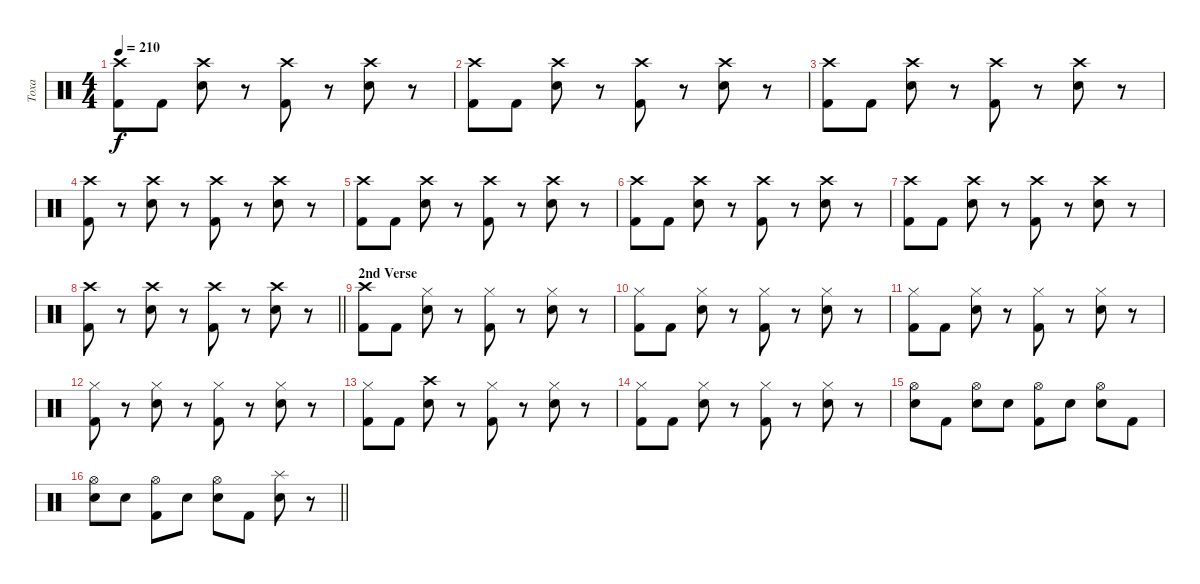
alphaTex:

\track ("Toxa" "Toxa") {instrument percussion}
\staff {score}
\articulation defaults
\ts (4 4)
\tempo 210
\clef neutral
\ks c
("Kick (hit) 2" "Crash high (hit)").8{dy f} "Kick (hit) 2".8 ("Snare (hit) 2" "Crash high (hit)").8 r.8 ("Kick (hit) 2" "Crash high (hit)").8 r.8 ("Snare (hit) 2" "Crash high (hit)").8 r.8 |
("Kick (hit) 2" "Crash high (hit)").8 "Kick (hit) 2".8 ("Snare (hit) 2" "Crash high (hit)").8 r.8 ("Kick (hit) 2" "Crash high (hit)").8 r.8 ("Snare (hit) 2" "Crash high (hit)").8 r.8 |
("Kick (hit) 2" "Crash high (hit)").8 "Kick (hit) 2".8 ("Snare (hit) 2" "Crash high (hit)").8 r.8 ("Kick (hit) 2" "Crash high (hit)").8 r.8 ("Snare (hit) 2" "Crash high (hit)").8 r.8 |
("Kick (hit) 2" "Crash high (hit)").8 r.8 ("Snare (hit) 2" "Crash high (hit)").8 r.8 ("Kick (hit) 2" "Crash high (hit)").8 r.8 ("Snare (hit) 2" "Crash high (hit)").8 r.8 |
("Kick (hit) 2" "Crash high (hit)").8 "Kick (hit) 2".8 ("Snare (hit) 2" "Crash high (hit)").8 r.8 ("Kick (hit) 2" "Crash high (hit)").8 r.8 ("Snare (hit) 2" "Crash high (hit)").8 r.8 |
("Kick (hit) 2" "Crash high (hit)").8 "Kick (hit) 2".8 ("Snare (hit) 2" "Crash high (hit)").8 r.8 ("Kick (hit) 2" "Crash high (hit)").8 r.8 ("Snare (hit) 2" "Crash high (hit)").8 r.8 |
("Kick (hit) 2" "Crash high (hit)").8 "Kick (hit) 2".8 ("Snare (hit) 2" "Crash high (hit)").8 r.8 ("Kick (hit) 2" "Crash high (hit)").8 r.8 ("Snare (hit) 2" "Crash high (hit)").8 r.8 |
\barLineRight lightlight
("Kick (hit) 2" "Crash high (hit)").8 r.8 ("Snare (hit) 2" "Crash high (hit)").8 r.8 ("Kick (hit) 2" "Crash high (hit)").8 r.8 ("Snare (hit) 2" "Crash high (hit)").8 r.8 |
\section ("" "2nd Verse")
("Kick (hit) 2" "Crash high (hit)").8 "Kick (hit) 2".8 ("Snare (hit) 2" "Hi-Hat (closed)").8 r.8 ("Kick (hit) 2" "Hi-Hat (closed)").8 r.8 ("Snare (hit) 2" "Hi-Hat (closed)").8 r.8 |
("Kick (hit) 2" "Hi-Hat (closed)").8 "Kick (hit) 2".8 ("Snare (hit) 2" "Hi-Hat (closed)").8 r.8 ("Kick (hit) 2" "Hi-Hat (closed)").8 r.8 ("Snare (hit) 2" "Hi-Hat (closed)").8 r.8 |
("Kick (hit) 2" "Hi-Hat (closed)").8 "Kick (hit) 2".8 ("Snare (hit) 2" "Hi-Hat (closed)").8 r.8 ("Kick (hit) 2" "Hi-Hat (closed)").8 r.8 ("Snare (hit) 2" "Hi-Hat (closed)").8 r.8 |
("Kick (hit) 2" "Hi-Hat (closed)").8 r.8 ("Snare (hit) 2" "Hi-Hat (closed)").8 r.8 ("Kick (hit) 2" "Hi-Hat (closed)").8 r.8 ("Snare (hit) 2" "Hi-Hat (closed)").8 r.8 |
("Kick (hit) 2" "Hi-Hat (closed)").8 "Kick (hit) 2".8 ("Snare (hit) 2" "Crash high (hit)").8 r.8 ("Kick (hit) 2" "Hi-Hat (closed)").8 r.8 ("Snare (hit) 2" "Hi-Hat (closed)").8 r.8 |
("Kick (hit) 2" "Hi-Hat (closed)").8 "Kick (hit) 2".8 ("Snare (hit) 2" "Hi-Hat (closed)").8 r.8 ("Kick (hit) 2" "Hi-Hat (closed)").8 r.8 ("Snare (hit) 2" "Hi-Hat (closed)").8 r.8 |
("Snare (hit) 2" "Hi-Hat (open)").8 "Kick (hit) 2".8 ("Snare (hit) 2" "Hi-Hat (open)").8 "Snare (hit) 2".8 ("Kick (hit) 2" "Hi-Hat (open)").8 "Snare (hit) 2".8 ("Snare (hit) 2" "Hi-Hat (open)").8 "Kick (hit) 2".8 |
\barLineRight lightlight
("Snare (hit) 2" "Hi-Hat (open)").8 "Snare (hit) 2".8 ("Kick (hit) 2" "Hi-Hat (open)").8 "Snare (hit) 2".8 ("Hi-Hat (open)" "Snare (hit) 2").8 "Kick (hit) 2".8 ("Snare (hit) 2" "Splash (hit)").8 r.8
